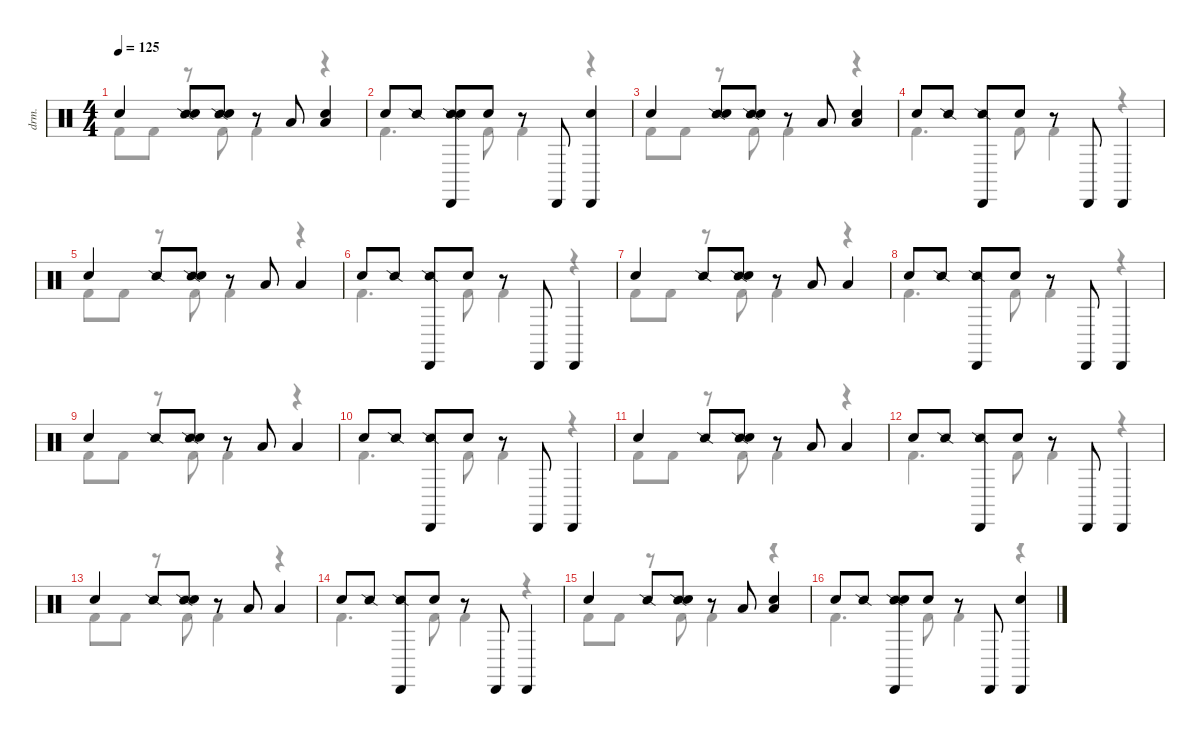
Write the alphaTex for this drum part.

\defaultSystemsLayout 4
\hideDynamics
\bracketExtendMode nobrackets
\otherSystemsTrackNameOrientation horizontal
\track ("Drums" "drm.") {instrument percussion}
\staff {score}
\articulation defaults
\voice
\ts (4 4)
\tempo 125
\clef neutral
\ks c "Hand Clap (hit)".4{dy p beam Up}
("Snare (side stick) 2" "Snare (hit) 2").8{dy mf beam Up} ("Snare (side stick) 2" "Hand Clap (hit)").8{beam Up} r.8{beam Up} "Low Tom (hit)".8{dy f beam Up} ("Low Tom (hit)" "Snare (hit) 2").4{beam Up} |
"Hand Clap (hit)".8{dy p beam Up} "Snare (side stick) 2".8{dy f beam Up} ("Snare (side stick) 2" "Cabasa (hit)" "Snare (hit) 2").8{beam Up} "Hand Clap (hit)".8{dy p beam Up} r.8{beam Up} "Cabasa (hit)".8{dy f beam Up} ("Cabasa (hit)" "Snare (hit) 2").4{beam Up} |
"Hand Clap (hit)".4{dy p beam Up} ("Snare (side stick) 2" "Snare (hit) 2").8{dy mf beam Up} ("Snare (side stick) 2" "Hand Clap (hit)").8{beam Up} r.8{beam Up} "Low Tom (hit)".8{dy f beam Up} ("Low Tom (hit)" "Snare (hit) 2").4{beam Up} |
"Hand Clap (hit)".8{dy p beam Up} "Snare (side stick) 2".8{dy f beam Up} ("Snare (side stick) 2" "Cabasa (hit)").8{beam Up} "Hand Clap (hit)".8{dy p beam Up} r.8{beam Up} "Cabasa (hit)".8{dy f beam Up} "Cabasa (hit)".4{beam Up} |
"Hand Clap (hit)".4{dy p beam Up} "Snare (side stick) 2".8{dy mf beam Up} ("Snare (side stick) 2" "Hand Clap (hit)").8{beam Up} r.8{beam Up} "Low Tom (hit)".8{dy f beam Up} "Low Tom (hit)".4{beam Up} |
"Hand Clap (hit)".8{dy p beam Up} "Snare (side stick) 2".8{dy f beam Up} ("Snare (side stick) 2" "Cabasa (hit)").8{beam Up} "Hand Clap (hit)".8{dy p beam Up} r.8{beam Up} "Cabasa (hit)".8{dy f beam Up} "Cabasa (hit)".4{beam Up} |
"Hand Clap (hit)".4{dy p beam Up} "Snare (side stick) 2".8{dy mf beam Up} ("Snare (side stick) 2" "Hand Clap (hit)").8{beam Up} r.8{beam Up} "Low Tom (hit)".8{dy f beam Up} "Low Tom (hit)".4{beam Up} |
"Hand Clap (hit)".8{dy p beam Up} "Snare (side stick) 2".8{dy f beam Up} ("Snare (side stick) 2" "Cabasa (hit)").8{beam Up} "Hand Clap (hit)".8{dy p beam Up} r.8{beam Up} "Cabasa (hit)".8{dy f beam Up} "Cabasa (hit)".4{beam Up} |
"Hand Clap (hit)".4{dy p beam Up} "Snare (side stick) 2".8{dy mf beam Up} ("Snare (side stick) 2" "Hand Clap (hit)").8{beam Up} r.8{beam Up} "Low Tom (hit)".8{dy f beam Up} "Low Tom (hit)".4{beam Up} |
"Hand Clap (hit)".8{dy p beam Up} "Snare (side stick) 2".8{dy f beam Up} ("Snare (side stick) 2" "Cabasa (hit)").8{beam Up} "Hand Clap (hit)".8{dy p beam Up} r.8{beam Up} "Cabasa (hit)".8{dy f beam Up} "Cabasa (hit)".4{beam Up} |
"Hand Clap (hit)".4{dy p beam Up} "Snare (side stick) 2".8{dy mf beam Up} ("Snare (side stick) 2" "Hand Clap (hit)").8{beam Up} r.8{beam Up} "Low Tom (hit)".8{dy f beam Up} "Low Tom (hit)".4{beam Up} |
"Hand Clap (hit)".8{dy p beam Up} "Snare (side stick) 2".8{dy f beam Up} ("Snare (side stick) 2" "Cabasa (hit)").8{beam Up} "Hand Clap (hit)".8{dy p beam Up} r.8{beam Up} "Cabasa (hit)".8{dy f beam Up} "Cabasa (hit)".4{beam Up} |
"Hand Clap (hit)".4{dy p beam Up} "Snare (side stick) 2".8{dy mf beam Up} ("Snare (side stick) 2" "Hand Clap (hit)").8{beam Up} r.8{beam Up} "Low Tom (hit)".8{dy f beam Up} "Low Tom (hit)".4{beam Up} |
"Hand Clap (hit)".8{dy p beam Up} "Snare (side stick) 2".8{dy f beam Up} ("Snare (side stick) 2" "Cabasa (hit)").8{beam Up} "Hand Clap (hit)".8{dy p beam Up} r.8{beam Up} "Cabasa (hit)".8{dy f beam Up} "Cabasa (hit)".4{beam Up} |
"Hand Clap (hit)".4{dy p beam Up} "Snare (side stick) 2".8{dy mf beam Up} ("Snare (side stick) 2" "Hand Clap (hit)").8{beam Up} r.8{beam Up} "Low Tom (hit)".8{dy f beam Up} ("Low Tom (hit)" "Snare (hit) 2").4{beam Up} |
"Hand Clap (hit)".8{dy p beam Up} "Snare (side stick) 2".8{dy f beam Up} ("Snare (side stick) 2" "Cabasa (hit)" "Snare (hit) 2").8{beam Up} "Hand Clap (hit)".8{dy p beam Up} r.8{beam Up} "Cabasa (hit)".8{dy f beam Up} ("Cabasa (hit)" "Snare (hit) 2").4{beam Up}
\voice
\clef neutral
\ottava regular
\simile none
\ks c "Kick (hit) 2".8{dy ff beam Down} "Kick (hit) 2".8{dy p beam Down}
r.8{beam Down} "Kick (hit) 2".8{dy ff beam Down} "Kick (hit) 2".4{dy p beam Down} r.4{beam Down} |
"Kick (hit) 2".4{d dy ff beam Down} "Kick (hit) 2".8{beam Down} "Kick (hit) 2".4{dy p beam Down} r.4{beam Down} |
"Kick (hit) 2".8{dy ff beam Down} "Kick (hit) 2".8{dy p beam Down} r.8{beam Down} "Kick (hit) 2".8{dy ff beam Down} "Kick (hit) 2".4{dy p beam Down} r.4{beam Down} |
"Kick (hit) 2".4{d dy ff beam Down} "Kick (hit) 2".8{beam Down} "Kick (hit) 2".4{dy p beam Down} r.4{beam Down} |
"Kick (hit) 2".8{dy ff beam Down} "Kick (hit) 2".8{dy p beam Down} r.8{beam Down} "Kick (hit) 2".8{dy ff beam Down} "Kick (hit) 2".4{dy p beam Down} r.4{beam Down} |
"Kick (hit) 2".4{d dy ff beam Down} "Kick (hit) 2".8{beam Down} "Kick (hit) 2".4{dy p beam Down} r.4{beam Down} |
"Kick (hit) 2".8{dy ff beam Down} "Kick (hit) 2".8{dy p beam Down} r.8{beam Down} "Kick (hit) 2".8{dy ff beam Down} "Kick (hit) 2".4{dy p beam Down} r.4{beam Down} |
"Kick (hit) 2".4{d dy ff beam Down} "Kick (hit) 2".8{beam Down} "Kick (hit) 2".4{dy p beam Down} r.4{beam Down} |
"Kick (hit) 2".8{dy ff beam Down} "Kick (hit) 2".8{dy p beam Down} r.8{beam Down} "Kick (hit) 2".8{dy ff beam Down} "Kick (hit) 2".4{dy p beam Down} r.4{beam Down} |
"Kick (hit) 2".4{d dy ff beam Down} "Kick (hit) 2".8{beam Down} "Kick (hit) 2".4{dy p beam Down} r.4{beam Down} |
"Kick (hit) 2".8{dy ff beam Down} "Kick (hit) 2".8{dy p beam Down} r.8{beam Down} "Kick (hit) 2".8{dy ff beam Down} "Kick (hit) 2".4{dy p beam Down} r.4{beam Down} |
"Kick (hit) 2".4{d dy ff beam Down} "Kick (hit) 2".8{beam Down} "Kick (hit) 2".4{dy p beam Down} r.4{beam Down} |
"Kick (hit) 2".8{dy ff beam Down} "Kick (hit) 2".8{dy p beam Down} r.8{beam Down} "Kick (hit) 2".8{dy ff beam Down} "Kick (hit) 2".4{dy p beam Down} r.4{beam Down} |
"Kick (hit) 2".4{d dy ff beam Down} "Kick (hit) 2".8{beam Down} "Kick (hit) 2".4{dy p beam Down} r.4{beam Down} |
"Kick (hit) 2".8{dy ff beam Down} "Kick (hit) 2".8{dy p beam Down} r.8{beam Down} "Kick (hit) 2".8{dy ff beam Down} "Kick (hit) 2".4{dy p beam Down} r.4{beam Down} |
"Kick (hit) 2".4{d dy ff beam Down} "Kick (hit) 2".8{beam Down} "Kick (hit) 2".4{dy p beam Down} r.4{beam Down}
